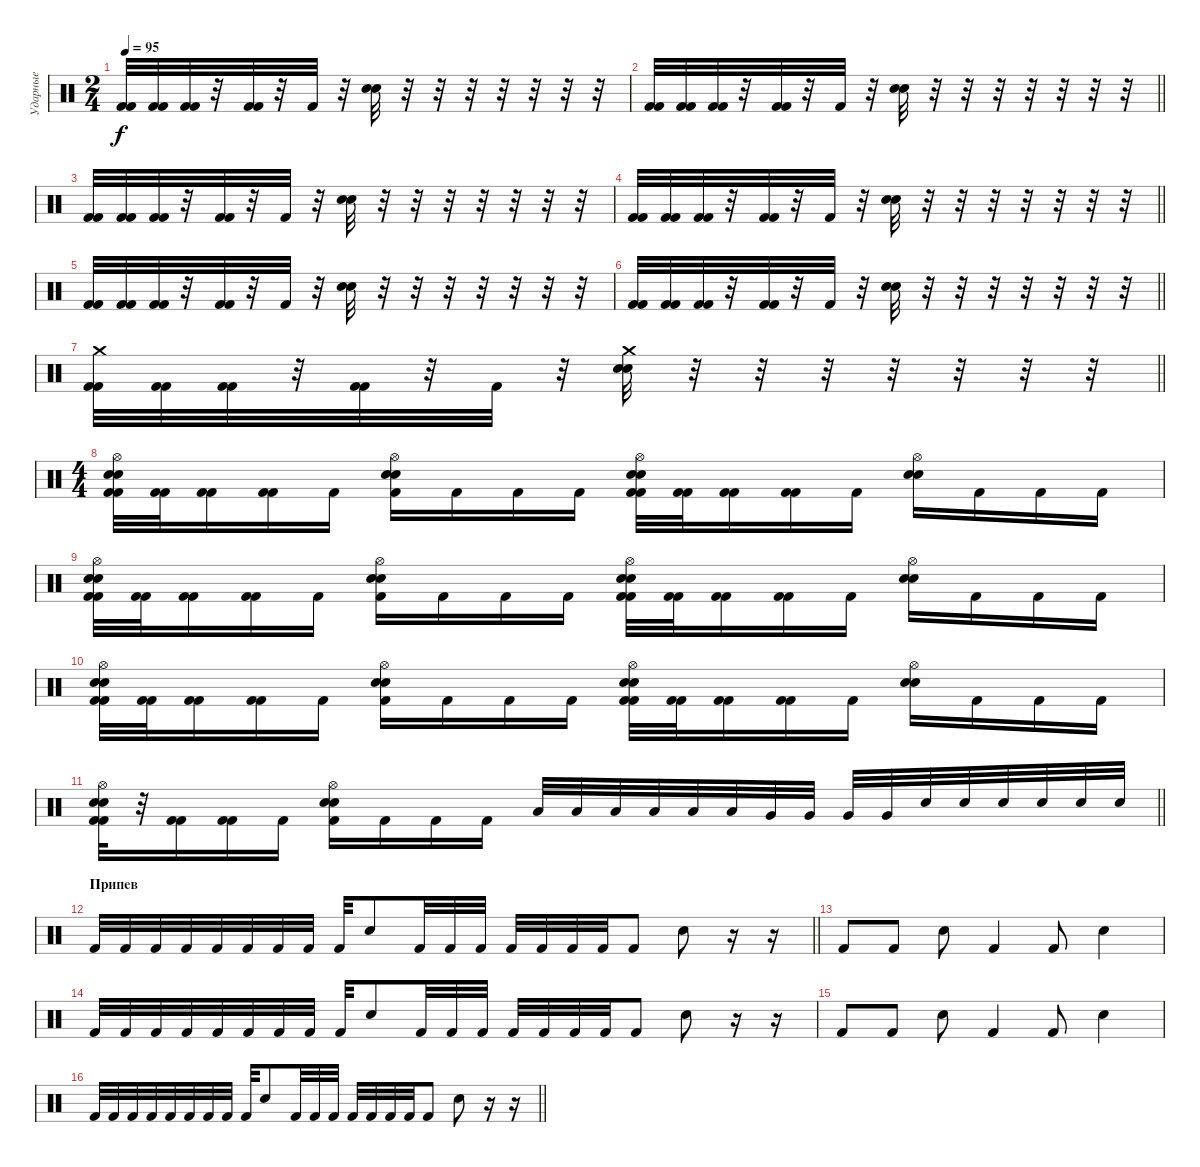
\track ("Ударные" "Ударные") {instrument percussion}
\staff {score}
\articulation defaults
\ts (2 4)
\tempo 95
\clef neutral
\ks c
("Kick (hit) 2" "Kick (hit) 2").32{dy f} ("Kick (hit) 2" "Kick (hit) 2").32 ("Kick (hit) 2" "Kick (hit) 2").32 r.32 ("Kick (hit) 2" "Kick (hit) 2").32 r.32 "Kick (hit) 2".32 r.32 ("Electric Snare (hit)" "Electric Snare (hit)").32 r.32 r.32 r.32 r.32 r.32 r.32 r.32 |
\barLineRight lightlight
("Kick (hit) 2" "Kick (hit) 2").32 ("Kick (hit) 2" "Kick (hit) 2").32 ("Kick (hit) 2" "Kick (hit) 2").32 r.32 ("Kick (hit) 2" "Kick (hit) 2").32 r.32 "Kick (hit) 2".32 r.32 ("Electric Snare (hit)" "Electric Snare (hit)").32 r.32 r.32 r.32 r.32 r.32 r.32 r.32 |
("Kick (hit) 2" "Kick (hit) 2").32 ("Kick (hit) 2" "Kick (hit) 2").32 ("Kick (hit) 2" "Kick (hit) 2").32 r.32 ("Kick (hit) 2" "Kick (hit) 2").32 r.32 "Kick (hit) 2".32 r.32 ("Electric Snare (hit)" "Electric Snare (hit)").32 r.32 r.32 r.32 r.32 r.32 r.32 r.32 |
\barLineRight lightlight
("Kick (hit) 2" "Kick (hit) 2").32 ("Kick (hit) 2" "Kick (hit) 2").32 ("Kick (hit) 2" "Kick (hit) 2").32 r.32 ("Kick (hit) 2" "Kick (hit) 2").32 r.32 "Kick (hit) 2".32 r.32 ("Electric Snare (hit)" "Electric Snare (hit)").32 r.32 r.32 r.32 r.32 r.32 r.32 r.32 |
("Kick (hit) 2" "Kick (hit) 2").32 ("Kick (hit) 2" "Kick (hit) 2").32 ("Kick (hit) 2" "Kick (hit) 2").32 r.32 ("Kick (hit) 2" "Kick (hit) 2").32 r.32 "Kick (hit) 2".32 r.32 ("Electric Snare (hit)" "Electric Snare (hit)").32 r.32 r.32 r.32 r.32 r.32 r.32 r.32 |
\barLineRight lightlight
("Kick (hit) 2" "Kick (hit) 2").32 ("Kick (hit) 2" "Kick (hit) 2").32 ("Kick (hit) 2" "Kick (hit) 2").32 r.32 ("Kick (hit) 2" "Kick (hit) 2").32 r.32 "Kick (hit) 2".32 r.32 ("Electric Snare (hit)" "Electric Snare (hit)").32 r.32 r.32 r.32 r.32 r.32 r.32 r.32 |
\barLineRight lightlight
("Crash medium (hit)" "Kick (hit) 2" "Kick (hit) 2").32 ("Kick (hit) 2" "Kick (hit) 2").32 ("Kick (hit) 2" "Kick (hit) 2").32 r.32 ("Kick (hit) 2" "Kick (hit) 2").32 r.32 "Kick (hit) 2".32 r.32 ("Crash medium (hit)" "Electric Snare (hit)" "Electric Snare (hit)").32 r.32 r.32 r.32 r.32 r.32 r.32 r.32 |
\ts (4 4)
\section ("" "")
("Hi-Hat (open)" "Electric Snare (hit)" "Electric Snare (hit)" "Kick (hit) 2" "Kick (hit) 2").32 ("Kick (hit) 2" "Kick (hit) 2").32 ("Kick (hit) 2" "Kick (hit) 2").16 ("Kick (hit) 2" "Kick (hit) 2").16 "Kick (hit) 2".16 ("Hi-Hat (open)" "Electric Snare (hit)" "Electric Snare (hit)" "Kick (hit) 2").16 "Kick (hit) 2".16 "Kick (hit) 2".16 "Kick (hit) 2".16 ("Hi-Hat (open)" "Electric Snare (hit)" "Electric Snare (hit)" "Kick (hit) 2" "Kick (hit) 2").32 ("Kick (hit) 2" "Kick (hit) 2").32 ("Kick (hit) 2" "Kick (hit) 2").16 ("Kick (hit) 2" "Kick (hit) 2").16 "Kick (hit) 2".16 ("Hi-Hat (open)" "Electric Snare (hit)" "Electric Snare (hit)").16 "Kick (hit) 2".16 "Kick (hit) 2".16 "Kick (hit) 2".16 |
("Hi-Hat (open)" "Electric Snare (hit)" "Electric Snare (hit)" "Kick (hit) 2" "Kick (hit) 2").32 ("Kick (hit) 2" "Kick (hit) 2").32 ("Kick (hit) 2" "Kick (hit) 2").16 ("Kick (hit) 2" "Kick (hit) 2").16 "Kick (hit) 2".16 ("Hi-Hat (open)" "Electric Snare (hit)" "Electric Snare (hit)" "Kick (hit) 2").16 "Kick (hit) 2".16 "Kick (hit) 2".16 "Kick (hit) 2".16 ("Hi-Hat (open)" "Electric Snare (hit)" "Electric Snare (hit)" "Kick (hit) 2" "Kick (hit) 2").32 ("Kick (hit) 2" "Kick (hit) 2").32 ("Kick (hit) 2" "Kick (hit) 2").16 ("Kick (hit) 2" "Kick (hit) 2").16 "Kick (hit) 2".16 ("Hi-Hat (open)" "Electric Snare (hit)" "Electric Snare (hit)").16 "Kick (hit) 2".16 "Kick (hit) 2".16 "Kick (hit) 2".16 |
("Hi-Hat (open)" "Electric Snare (hit)" "Electric Snare (hit)" "Kick (hit) 2" "Kick (hit) 2").32 ("Kick (hit) 2" "Kick (hit) 2").32 ("Kick (hit) 2" "Kick (hit) 2").16 ("Kick (hit) 2" "Kick (hit) 2").16 "Kick (hit) 2".16 ("Hi-Hat (open)" "Electric Snare (hit)" "Electric Snare (hit)" "Kick (hit) 2").16 "Kick (hit) 2".16 "Kick (hit) 2".16 "Kick (hit) 2".16 ("Hi-Hat (open)" "Electric Snare (hit)" "Electric Snare (hit)" "Kick (hit) 2" "Kick (hit) 2").32 ("Kick (hit) 2" "Kick (hit) 2").32 ("Kick (hit) 2" "Kick (hit) 2").16 ("Kick (hit) 2" "Kick (hit) 2").16 "Kick (hit) 2".16 ("Hi-Hat (open)" "Electric Snare (hit)" "Electric Snare (hit)").16 "Kick (hit) 2".16 "Kick (hit) 2".16 "Kick (hit) 2".16 |
\barLineRight lightlight
("Hi-Hat (open)" "Electric Snare (hit)" "Electric Snare (hit)" "Kick (hit) 2" "Kick (hit) 2").32 r.32 ("Kick (hit) 2" "Kick (hit) 2").16 ("Kick (hit) 2" "Kick (hit) 2").16 "Kick (hit) 2".16 ("Hi-Hat (open)" "Electric Snare (hit)" "Electric Snare (hit)" "Kick (hit) 2").16 "Kick (hit) 2".16 "Kick (hit) 2".16 "Kick (hit) 2".16 "Low Tom (hit)".32 "Low Tom (hit)".32 "Low Tom (hit)".32 "Low Tom (hit)".32 "Low Tom (hit)".32 "Low Tom (hit)".32 "Very Low Tom (hit)".32 "Very Low Tom (hit)".32 "Very Low Tom (hit)".32 "Very Low Tom (hit)".32 "Electric Snare (hit)".32 "Electric Snare (hit)".32 "Electric Snare (hit)".32 "Electric Snare (hit)".32 "Electric Snare (hit)".32 "Electric Snare (hit)".32 |
\section ("" "Припев")
\barLineRight lightlight "Kick (hit) 2".32 "Kick (hit) 2".32 "Kick (hit) 2".32 "Kick (hit) 2".32 "Kick (hit) 2".32 "Kick (hit) 2".32 "Kick (hit) 2".32 "Kick (hit) 2".32 "Kick (hit) 2".32 "Electric Snare (hit)".8 "Kick (hit) 2".32 "Kick (hit) 2".32 "Kick (hit) 2".32 "Kick (hit) 2".32 "Kick (hit) 2".32 "Kick (hit) 2".32 "Kick (hit) 2".32 "Kick (hit) 2".8 "Electric Snare (hit)".8
r.16 r.16 |
"Kick (hit) 2".8 "Kick (hit) 2".8 "Electric Snare (hit)".8 "Kick (hit) 2".4 "Kick (hit) 2".8 "Electric Snare (hit)".4 |
"Kick (hit) 2".32 "Kick (hit) 2".32 "Kick (hit) 2".32 "Kick (hit) 2".32 "Kick (hit) 2".32 "Kick (hit) 2".32 "Kick (hit) 2".32 "Kick (hit) 2".32 "Kick (hit) 2".32 "Electric Snare (hit)".8 "Kick (hit) 2".32 "Kick (hit) 2".32 "Kick (hit) 2".32 "Kick (hit) 2".32 "Kick (hit) 2".32 "Kick (hit) 2".32 "Kick (hit) 2".32 "Kick (hit) 2".8 "Electric Snare (hit)".8 r.16 r.16 |
"Kick (hit) 2".8 "Kick (hit) 2".8 "Electric Snare (hit)".8 "Kick (hit) 2".4 "Kick (hit) 2".8 "Electric Snare (hit)".4 |
\barLineRight lightlight "Kick (hit) 2".32 "Kick (hit) 2".32 "Kick (hit) 2".32 "Kick (hit) 2".32 "Kick (hit) 2".32 "Kick (hit) 2".32 "Kick (hit) 2".32 "Kick (hit) 2".32 "Kick (hit) 2".32 "Electric Snare (hit)".8 "Kick (hit) 2".32 "Kick (hit) 2".32 "Kick (hit) 2".32 "Kick (hit) 2".32 "Kick (hit) 2".32 "Kick (hit) 2".32 "Kick (hit) 2".32 "Kick (hit) 2".8 "Electric Snare (hit)".8
r.16 r.16
